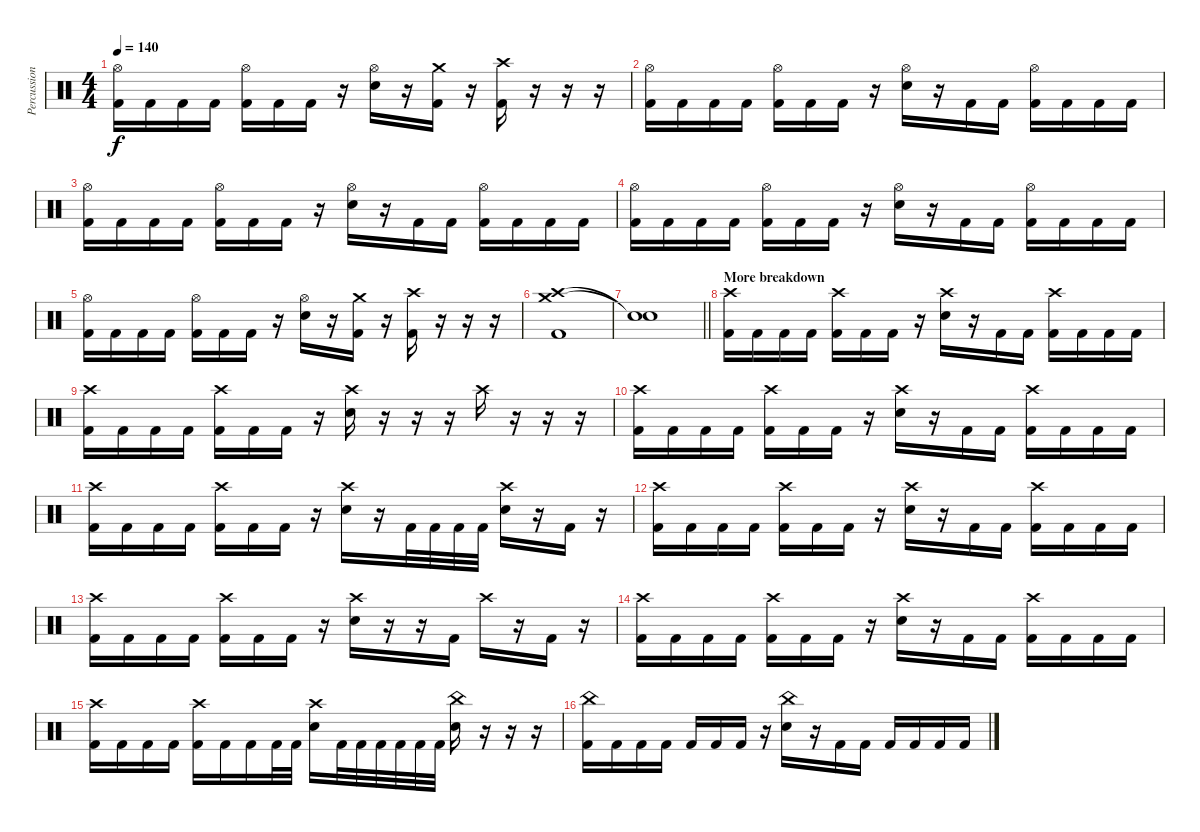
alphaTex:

\track ("Percussion" "Percussion") {instrument percussion}
\staff {score}
\articulation defaults
\ts (4 4)
\tempo 140
\clef neutral
\ks c
("Hi-Hat (open)" "Kick (hit) 2").16{dy f} "Kick (hit) 2".16 "Kick (hit) 2".16 "Kick (hit) 2".16 ("Hi-Hat (open)" "Kick (hit) 2").16 "Kick (hit) 2".16 "Kick (hit) 2".16 r.16 ("Hi-Hat (open)" "Electric Snare (hit)").16 r.16 ("Crash medium (hit)" "Kick (hit) 2").16 r.16 ("Crash high (hit)" "Kick (hit) 2").16 r.16 r.16 r.16 |
("Hi-Hat (open)" "Kick (hit) 2").16 "Kick (hit) 2".16 "Kick (hit) 2".16 "Kick (hit) 2".16 ("Hi-Hat (open)" "Kick (hit) 2").16 "Kick (hit) 2".16 "Kick (hit) 2".16 r.16 ("Hi-Hat (open)" "Electric Snare (hit)").16 r.16 "Kick (hit) 2".16 "Kick (hit) 2".16 ("Hi-Hat (open)" "Kick (hit) 2").16 "Kick (hit) 2".16 "Kick (hit) 2".16 "Kick (hit) 2".16 |
("Hi-Hat (open)" "Kick (hit) 2").16 "Kick (hit) 2".16 "Kick (hit) 2".16 "Kick (hit) 2".16 ("Hi-Hat (open)" "Kick (hit) 2").16 "Kick (hit) 2".16 "Kick (hit) 2".16 r.16 ("Hi-Hat (open)" "Electric Snare (hit)").16 r.16 "Kick (hit) 2".16 "Kick (hit) 2".16 ("Hi-Hat (open)" "Kick (hit) 2").16 "Kick (hit) 2".16 "Kick (hit) 2".16 "Kick (hit) 2".16 |
("Hi-Hat (open)" "Kick (hit) 2").16 "Kick (hit) 2".16 "Kick (hit) 2".16 "Kick (hit) 2".16 ("Hi-Hat (open)" "Kick (hit) 2").16 "Kick (hit) 2".16 "Kick (hit) 2".16 r.16 ("Hi-Hat (open)" "Electric Snare (hit)").16 r.16 "Kick (hit) 2".16 "Kick (hit) 2".16 ("Hi-Hat (open)" "Kick (hit) 2").16 "Kick (hit) 2".16 "Kick (hit) 2".16 "Kick (hit) 2".16 |
("Hi-Hat (open)" "Kick (hit) 2").16 "Kick (hit) 2".16 "Kick (hit) 2".16 "Kick (hit) 2".16 ("Hi-Hat (open)" "Kick (hit) 2").16 "Kick (hit) 2".16 "Kick (hit) 2".16 r.16 ("Hi-Hat (open)" "Electric Snare (hit)").16 r.16 ("Crash medium (hit)" "Kick (hit) 2").16 r.16 ("Crash high (hit)" "Kick (hit) 2").16 r.16 r.16 r.16 |
("Crash medium (hit)" "Crash high (hit)" "Kick (hit) 2").1 |
\barLineRight lightlight
("Snare (hit)"{t} "Snare (hit)"{t}).1 |
\section ("" "More breakdown")
("Crash high (hit)" "Kick (hit) 2").16 "Kick (hit) 2".16 "Kick (hit) 2".16 "Kick (hit) 2".16 ("Crash high (hit)" "Kick (hit) 2").16 "Kick (hit) 2".16 "Kick (hit) 2".16 r.16 ("Crash high (hit)" "Electric Snare (hit)").16 r.16 "Kick (hit) 2".16 "Kick (hit) 2".16 ("Crash high (hit)" "Kick (hit) 2").16 "Kick (hit) 2".16 "Kick (hit) 2".16 "Kick (hit) 2".16 |
("Crash high (hit)" "Kick (hit) 2").16 "Kick (hit) 2".16 "Kick (hit) 2".16 "Kick (hit) 2".16 ("Crash high (hit)" "Kick (hit) 2").16 "Kick (hit) 2".16 "Kick (hit) 2".16 r.16 ("Crash high (hit)" "Electric Snare (hit)").16 r.16 r.16 r.16 "Crash high (hit)".16 r.16 r.16 r.16 |
("Crash high (hit)" "Kick (hit) 2").16 "Kick (hit) 2".16 "Kick (hit) 2".16 "Kick (hit) 2".16 ("Crash high (hit)" "Kick (hit) 2").16 "Kick (hit) 2".16 "Kick (hit) 2".16 r.16 ("Crash high (hit)" "Electric Snare (hit)").16 r.16 "Kick (hit) 2".16 "Kick (hit) 2".16 ("Crash high (hit)" "Kick (hit) 2").16 "Kick (hit) 2".16 "Kick (hit) 2".16 "Kick (hit) 2".16 |
("Crash high (hit)" "Kick (hit) 2").16 "Kick (hit) 2".16 "Kick (hit) 2".16 "Kick (hit) 2".16 ("Crash high (hit)" "Kick (hit) 2").16 "Kick (hit) 2".16 "Kick (hit) 2".16 r.16 ("Crash high (hit)" "Electric Snare (hit)").16 r.16 "Kick (hit) 2".32 "Kick (hit) 2".32 "Kick (hit) 2".32 "Kick (hit) 2".32 ("Crash high (hit)" "Electric Snare (hit)").16 r.16 "Kick (hit) 2".16 r.16 |
("Crash high (hit)" "Kick (hit) 2").16 "Kick (hit) 2".16 "Kick (hit) 2".16 "Kick (hit) 2".16 ("Crash high (hit)" "Kick (hit) 2").16 "Kick (hit) 2".16 "Kick (hit) 2".16 r.16 ("Crash high (hit)" "Electric Snare (hit)").16 r.16 "Kick (hit) 2".16 "Kick (hit) 2".16 ("Crash high (hit)" "Kick (hit) 2").16 "Kick (hit) 2".16 "Kick (hit) 2".16 "Kick (hit) 2".16 |
("Crash high (hit)" "Kick (hit) 2").16 "Kick (hit) 2".16 "Kick (hit) 2".16 "Kick (hit) 2".16 ("Crash high (hit)" "Kick (hit) 2").16 "Kick (hit) 2".16 "Kick (hit) 2".16 r.16 ("Crash high (hit)" "Electric Snare (hit)").16 r.16 r.16 "Kick (hit) 2".16 "Crash high (hit)".16 r.16 "Kick (hit) 2".16 r.16 |
("Crash high (hit)" "Kick (hit) 2").16 "Kick (hit) 2".16 "Kick (hit) 2".16 "Kick (hit) 2".16 ("Crash high (hit)" "Kick (hit) 2").16 "Kick (hit) 2".16 "Kick (hit) 2".16 r.16 ("Crash high (hit)" "Electric Snare (hit)").16 r.16 "Kick (hit) 2".16 "Kick (hit) 2".16 ("Crash high (hit)" "Kick (hit) 2").16 "Kick (hit) 2".16 "Kick (hit) 2".16 "Kick (hit) 2".16 |
("Crash high (hit)" "Kick (hit) 2").16 "Kick (hit) 2".16 "Kick (hit) 2".16 "Kick (hit) 2".16 ("Crash high (hit)" "Kick (hit) 2").16 "Kick (hit) 2".16 "Kick (hit) 2".16 "Kick (hit) 2".32 "Kick (hit) 2".32 ("Crash high (hit)" "Electric Snare (hit)").16 "Kick (hit) 2".32 "Kick (hit) 2".32 "Kick (hit) 2".32 "Kick (hit) 2".32 "Kick (hit) 2".32 "Kick (hit) 2".32 ("China (hit)" "Electric Snare (hit)").16 r.16 r.16 r.16 |
("China (hit)" "Kick (hit) 2").16 "Kick (hit) 2".16 "Kick (hit) 2".16 "Kick (hit) 2".16 "Kick (hit) 2".16 "Kick (hit) 2".16 "Kick (hit) 2".16 r.16 ("China (hit)" "Electric Snare (hit)").16 r.16 "Kick (hit) 2".16 "Kick (hit) 2".16 "Kick (hit) 2".16 "Kick (hit) 2".16 "Kick (hit) 2".16 "Kick (hit) 2".16
